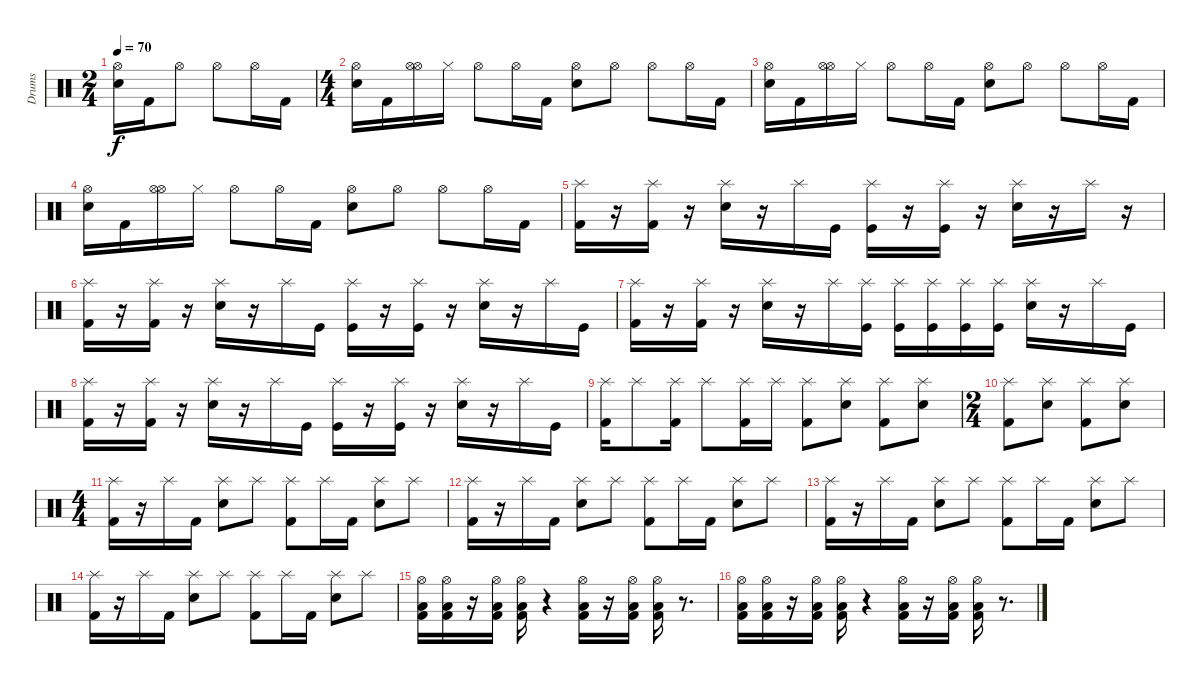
\track ("Drums" "Drums") {instrument percussion}
\staff {score}
\articulation defaults
\ts (2 4)
\tempo 70
\clef neutral
\ks c
("Hi-Hat (open)" "Snare (hit) 2").16{dy f} "Kick (hit) 2".16 "Hi-Hat (open)".8 "Hi-Hat (open)".8 "Hi-Hat (open)".16 "Kick (hit) 2".16 |
\ts (4 4)
("Hi-Hat (open)" "Snare (hit) 2").16 "Kick (hit) 2".16 ("Hi-Hat (open)" "Hi-Hat (open)").16 "Hi-Hat (closed)".16 "Hi-Hat (open)".8 "Hi-Hat (open)".16 "Kick (hit) 2".16 ("Hi-Hat (open)" "Snare (hit) 2").8 "Hi-Hat (open)".8 "Hi-Hat (open)".8 "Hi-Hat (open)".16 "Kick (hit) 2".16 |
("Hi-Hat (open)" "Snare (hit) 2").16 "Kick (hit) 2".16 ("Hi-Hat (open)" "Hi-Hat (open)").16 "Hi-Hat (closed)".16 "Hi-Hat (open)".8 "Hi-Hat (open)".16 "Kick (hit) 2".16 ("Hi-Hat (open)" "Snare (hit) 2").8 "Hi-Hat (open)".8 "Hi-Hat (open)".8 "Hi-Hat (open)".16 "Kick (hit) 2".16 |
("Hi-Hat (open)" "Snare (hit) 2").16 "Kick (hit) 2".16 ("Hi-Hat (open)" "Hi-Hat (open)").16 "Hi-Hat (closed)".16 "Hi-Hat (open)".8 "Hi-Hat (open)".16 "Kick (hit) 2".16 ("Hi-Hat (open)" "Snare (hit) 2").8 "Hi-Hat (open)".8 "Hi-Hat (open)".8 "Hi-Hat (open)".16 "Kick (hit) 2".16 |
("Splash (hit)" "Kick (hit) 2").16 r.16 ("Splash (hit)" "Kick (hit) 2").16 r.16 ("Splash (hit)" "Snare (hit) 2").16 r.16 "Splash (hit)".16 "Kick (hit)".16 ("Splash (hit)" "Kick (hit)").16 r.16 ("Splash (hit)" "Kick (hit)").16 r.16 ("Splash (hit)" "Snare (hit) 2").16 r.16 "Splash (hit)".16 r.16 |
("Splash (hit)" "Kick (hit) 2").16 r.16 ("Splash (hit)" "Kick (hit) 2").16 r.16 ("Splash (hit)" "Snare (hit) 2").16 r.16 "Splash (hit)".16 "Kick (hit)".16 ("Splash (hit)" "Kick (hit)").16 r.16 ("Splash (hit)" "Kick (hit)").16 r.16 ("Splash (hit)" "Snare (hit) 2").16 r.16 "Splash (hit)".16 "Kick (hit)".16 |
("Splash (hit)" "Kick (hit) 2").16 r.16 ("Splash (hit)" "Kick (hit) 2").16 r.16 ("Splash (hit)" "Snare (hit) 2").16 r.16 "Splash (hit)".16 ("Splash (hit)" "Kick (hit)").16 ("Splash (hit)" "Kick (hit)").16 ("Splash (hit)" "Kick (hit)").16 ("Splash (hit)" "Kick (hit)").16 ("Splash (hit)" "Kick (hit)").16 ("Splash (hit)" "Snare (hit) 2").16 r.16 "Splash (hit)".16 "Kick (hit)".16 |
("Splash (hit)" "Kick (hit) 2").16 r.16 ("Splash (hit)" "Kick (hit) 2").16 r.16 ("Splash (hit)" "Snare (hit) 2").16 r.16 "Splash (hit)".16 "Kick (hit)".16 ("Splash (hit)" "Kick (hit)").16 r.16 ("Splash (hit)" "Kick (hit)").16 r.16 ("Splash (hit)" "Snare (hit) 2").16 r.16 "Splash (hit)".16 "Kick (hit)".16 |
("Splash (hit)" "Kick (hit) 2").16 "Splash (hit)".8 ("Splash (hit)" "Kick (hit) 2").16 "Splash (hit)".8 ("Splash (hit)" "Kick (hit) 2").16 "Splash (hit)".16 ("Splash (hit)" "Kick (hit) 2").8 ("Splash (hit)" "Snare (hit) 2").8 ("Splash (hit)" "Kick (hit) 2").8 ("Splash (hit)" "Snare (hit) 2").8 |
\ts (2 4)
("Splash (hit)" "Kick (hit) 2").8 ("Splash (hit)" "Snare (hit) 2").8 ("Splash (hit)" "Kick (hit) 2").8 ("Splash (hit)" "Snare (hit) 2").8 |
\ts (4 4)
("Splash (hit)" "Kick (hit) 2").16 r.16 "Splash (hit)".16 "Kick (hit) 2".16 ("Splash (hit)" "Snare (hit) 2").8 "Splash (hit)".8 ("Splash (hit)" "Kick (hit) 2").8 "Splash (hit)".16 "Kick (hit) 2".16 ("Splash (hit)" "Snare (hit) 2").8 "Splash (hit)".8 |
("Splash (hit)" "Kick (hit) 2").16 r.16 "Splash (hit)".16 "Kick (hit) 2".16 ("Splash (hit)" "Snare (hit) 2").8 "Splash (hit)".8 ("Splash (hit)" "Kick (hit) 2").8 "Splash (hit)".16 "Kick (hit) 2".16 ("Splash (hit)" "Snare (hit) 2").8 "Splash (hit)".8 |
("Splash (hit)" "Kick (hit) 2").16 r.16 "Splash (hit)".16 "Kick (hit) 2".16 ("Splash (hit)" "Snare (hit) 2").8 "Splash (hit)".8 ("Splash (hit)" "Kick (hit) 2").8 "Splash (hit)".16 "Kick (hit) 2".16 ("Splash (hit)" "Snare (hit) 2").8 "Splash (hit)".8 |
("Splash (hit)" "Kick (hit) 2").16 r.16 "Splash (hit)".16 "Kick (hit) 2".16 ("Splash (hit)" "Snare (hit) 2").8 "Splash (hit)".8 ("Splash (hit)" "Kick (hit) 2").8 "Splash (hit)".16 "Kick (hit) 2".16 ("Splash (hit)" "Snare (hit) 2").8 "Splash (hit)".8 |
("Hi-Hat (open)" "Low Floor Tom (hit)" "Kick (hit) 2").16 ("Hi-Hat (open)" "Low Floor Tom (hit)" "Kick (hit) 2").16 r.16 ("Hi-Hat (open)" "Low Floor Tom (hit)" "Kick (hit) 2").16 ("Hi-Hat (open)" "Low Floor Tom (hit)" "Kick (hit) 2").16 r.4 ("Hi-Hat (open)" "Low Floor Tom (hit)" "Kick (hit) 2").16 r.16 ("Hi-Hat (open)" "Low Floor Tom (hit)" "Kick (hit) 2").16 ("Hi-Hat (open)" "Low Floor Tom (hit)" "Kick (hit) 2").16 r.8{d} |
("Hi-Hat (open)" "Low Floor Tom (hit)" "Kick (hit) 2").16 ("Hi-Hat (open)" "Low Floor Tom (hit)" "Kick (hit) 2").16 r.16 ("Hi-Hat (open)" "Low Floor Tom (hit)" "Kick (hit) 2").16 ("Hi-Hat (open)" "Low Floor Tom (hit)" "Kick (hit) 2").16 r.4 ("Hi-Hat (open)" "Low Floor Tom (hit)" "Kick (hit) 2").16 r.16 ("Hi-Hat (open)" "Low Floor Tom (hit)" "Kick (hit) 2").16 ("Hi-Hat (open)" "Low Floor Tom (hit)" "Kick (hit) 2").16 r.8{d}
